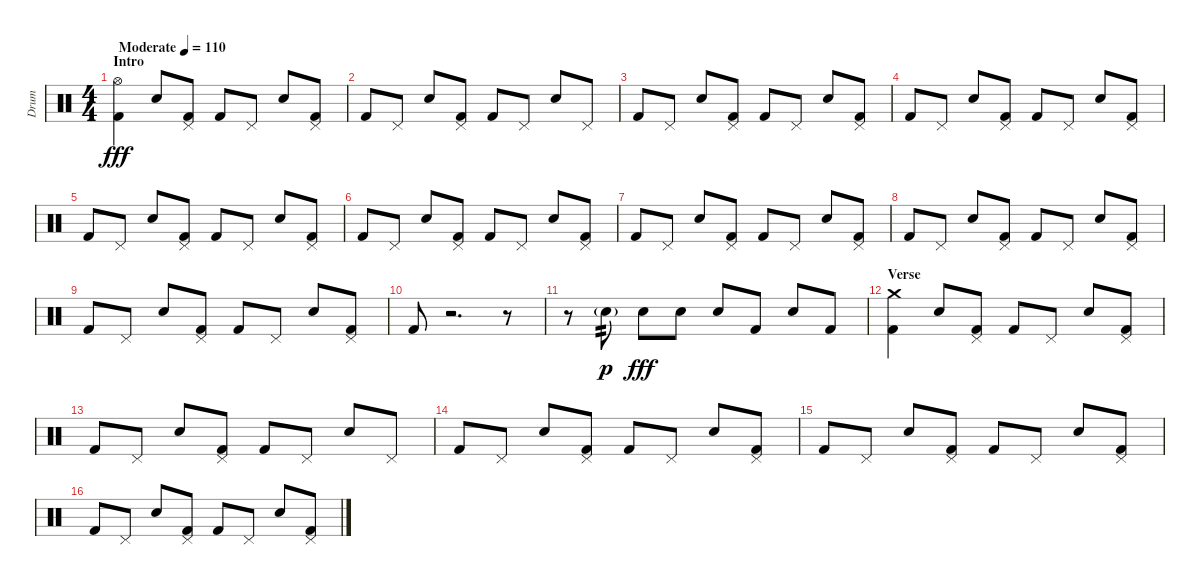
\track ("Drum" "Drum") {instrument percussion}
\staff {score}
\articulation defaults
\ts (4 4)
\section ("" "Intro")
\tempo (110 "Moderate")
\clef neutral
\ks c
("Hi-Hat (open)" "Kick (hit) 2").4{dy fff} "Electric Snare (hit)".8 ("Pedal Hi-Hat (hit)" "Kick (hit) 2").8 "Kick (hit) 2".8 "Pedal Hi-Hat (hit)".8 "Electric Snare (hit)".8 ("Pedal Hi-Hat (hit)" "Kick (hit) 2").8 |
"Kick (hit) 2".8 "Pedal Hi-Hat (hit)".8 "Electric Snare (hit)".8 ("Pedal Hi-Hat (hit)" "Kick (hit) 2").8 "Kick (hit) 2".8 "Pedal Hi-Hat (hit)".8 "Electric Snare (hit)".8 "Pedal Hi-Hat (hit)".8 |
"Kick (hit) 2".8 "Pedal Hi-Hat (hit)".8 "Electric Snare (hit)".8 ("Pedal Hi-Hat (hit)" "Kick (hit) 2").8 "Kick (hit) 2".8 "Pedal Hi-Hat (hit)".8 "Electric Snare (hit)".8 ("Pedal Hi-Hat (hit)" "Kick (hit) 2").8 |
"Kick (hit) 2".8 "Pedal Hi-Hat (hit)".8 "Electric Snare (hit)".8 ("Pedal Hi-Hat (hit)" "Kick (hit) 2").8 "Kick (hit) 2".8 "Pedal Hi-Hat (hit)".8 "Electric Snare (hit)".8 ("Pedal Hi-Hat (hit)" "Kick (hit) 2").8 |
"Kick (hit) 2".8 "Pedal Hi-Hat (hit)".8 "Electric Snare (hit)".8 ("Pedal Hi-Hat (hit)" "Kick (hit) 2").8 "Kick (hit) 2".8 "Pedal Hi-Hat (hit)".8 "Electric Snare (hit)".8 ("Pedal Hi-Hat (hit)" "Kick (hit) 2").8 |
"Kick (hit) 2".8 "Pedal Hi-Hat (hit)".8 "Electric Snare (hit)".8 ("Pedal Hi-Hat (hit)" "Kick (hit) 2").8 "Kick (hit) 2".8 "Pedal Hi-Hat (hit)".8 "Electric Snare (hit)".8 ("Pedal Hi-Hat (hit)" "Kick (hit) 2").8 |
"Kick (hit) 2".8 "Pedal Hi-Hat (hit)".8 "Electric Snare (hit)".8 ("Pedal Hi-Hat (hit)" "Kick (hit) 2").8 "Kick (hit) 2".8 "Pedal Hi-Hat (hit)".8 "Electric Snare (hit)".8 ("Pedal Hi-Hat (hit)" "Kick (hit) 2").8 |
"Kick (hit) 2".8 "Pedal Hi-Hat (hit)".8 "Electric Snare (hit)".8 ("Pedal Hi-Hat (hit)" "Kick (hit) 2").8 "Kick (hit) 2".8 "Pedal Hi-Hat (hit)".8 "Electric Snare (hit)".8 ("Pedal Hi-Hat (hit)" "Kick (hit) 2").8 |
"Kick (hit) 2".8 "Pedal Hi-Hat (hit)".8 "Electric Snare (hit)".8 ("Pedal Hi-Hat (hit)" "Kick (hit) 2").8 "Kick (hit) 2".8 "Pedal Hi-Hat (hit)".8 "Electric Snare (hit)".8 ("Pedal Hi-Hat (hit)" "Kick (hit) 2").8 |
"Kick (hit) 2".8 r.2{d} r.8 |
r.8 "Electric Snare (hit)"{g}.8{tp 2 dy p} "Electric Snare (hit)".8{dy fff} "Electric Snare (hit)".8 "Electric Snare (hit)".8 "Kick (hit) 2".8 "Electric Snare (hit)".8 "Kick (hit) 2".8 |
\section ("" "Verse")
("Crash medium (hit)" "Kick (hit) 2").4 "Electric Snare (hit)".8 ("Pedal Hi-Hat (hit)" "Kick (hit) 2").8 "Kick (hit) 2".8 "Pedal Hi-Hat (hit)".8 "Electric Snare (hit)".8 ("Pedal Hi-Hat (hit)" "Kick (hit) 2").8 |
"Kick (hit) 2".8 "Pedal Hi-Hat (hit)".8 "Electric Snare (hit)".8 ("Pedal Hi-Hat (hit)" "Kick (hit) 2").8 "Kick (hit) 2".8 "Pedal Hi-Hat (hit)".8 "Electric Snare (hit)".8 "Pedal Hi-Hat (hit)".8 |
"Kick (hit) 2".8 "Pedal Hi-Hat (hit)".8 "Electric Snare (hit)".8 ("Pedal Hi-Hat (hit)" "Kick (hit) 2").8 "Kick (hit) 2".8 "Pedal Hi-Hat (hit)".8 "Electric Snare (hit)".8 ("Pedal Hi-Hat (hit)" "Kick (hit) 2").8 |
"Kick (hit) 2".8 "Pedal Hi-Hat (hit)".8 "Electric Snare (hit)".8 ("Pedal Hi-Hat (hit)" "Kick (hit) 2").8 "Kick (hit) 2".8 "Pedal Hi-Hat (hit)".8 "Electric Snare (hit)".8 ("Pedal Hi-Hat (hit)" "Kick (hit) 2").8 |
"Kick (hit) 2".8 "Pedal Hi-Hat (hit)".8 "Electric Snare (hit)".8 ("Pedal Hi-Hat (hit)" "Kick (hit) 2").8 "Kick (hit) 2".8 "Pedal Hi-Hat (hit)".8 "Electric Snare (hit)".8 ("Pedal Hi-Hat (hit)" "Kick (hit) 2").8
